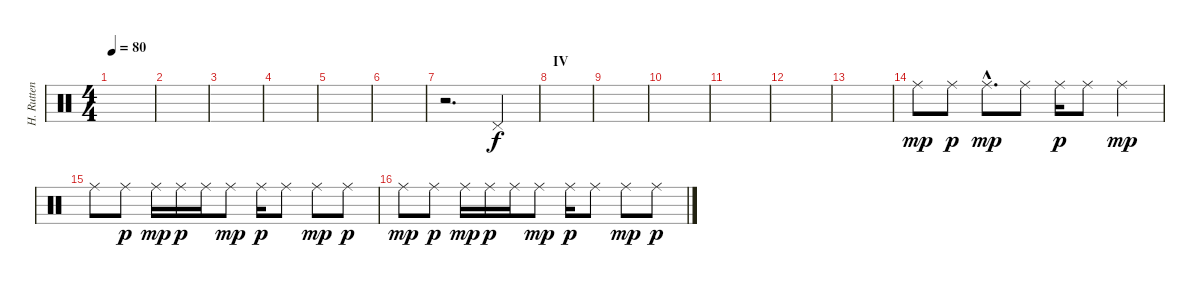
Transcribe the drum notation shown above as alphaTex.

\track ("H. Rutten" "H. Rutten") {instrument percussion}
\staff {score}
\articulation defaults
\ts (4 4)
\tempo 80
\clef neutral
\ks c
|
|
|
|
|
|
r.2{d} "Pedal Hi-Hat (hit)".4{dy f} |
\section ("" "IV")
|
|
|
|
|
|
"Ride (middle)".8{dy mp} "Ride (middle)".8{dy p} "Ride (middle)"{hac}.8{d dy mp} "Ride (middle)".8 "Ride (middle)".16{dy p} "Ride (middle)".8 "Ride (middle)".4{dy mp} |
"Ride (middle)".8 "Ride (middle)".8{dy p} "Ride (middle)".16{dy mp} "Ride (middle)".16{dy p} "Ride (middle)".16 "Ride (middle)".8{dy mp} "Ride (middle)".16{dy p} "Ride (middle)".8 "Ride (middle)".8{dy mp} "Ride (middle)".8{dy p} |
"Ride (middle)".8{dy mp} "Ride (middle)".8{dy p} "Ride (middle)".16{dy mp} "Ride (middle)".16{dy p} "Ride (middle)".16 "Ride (middle)".8{dy mp} "Ride (middle)".16{dy p} "Ride (middle)".8 "Ride (middle)".8{dy mp} "Ride (middle)".8{dy p}
